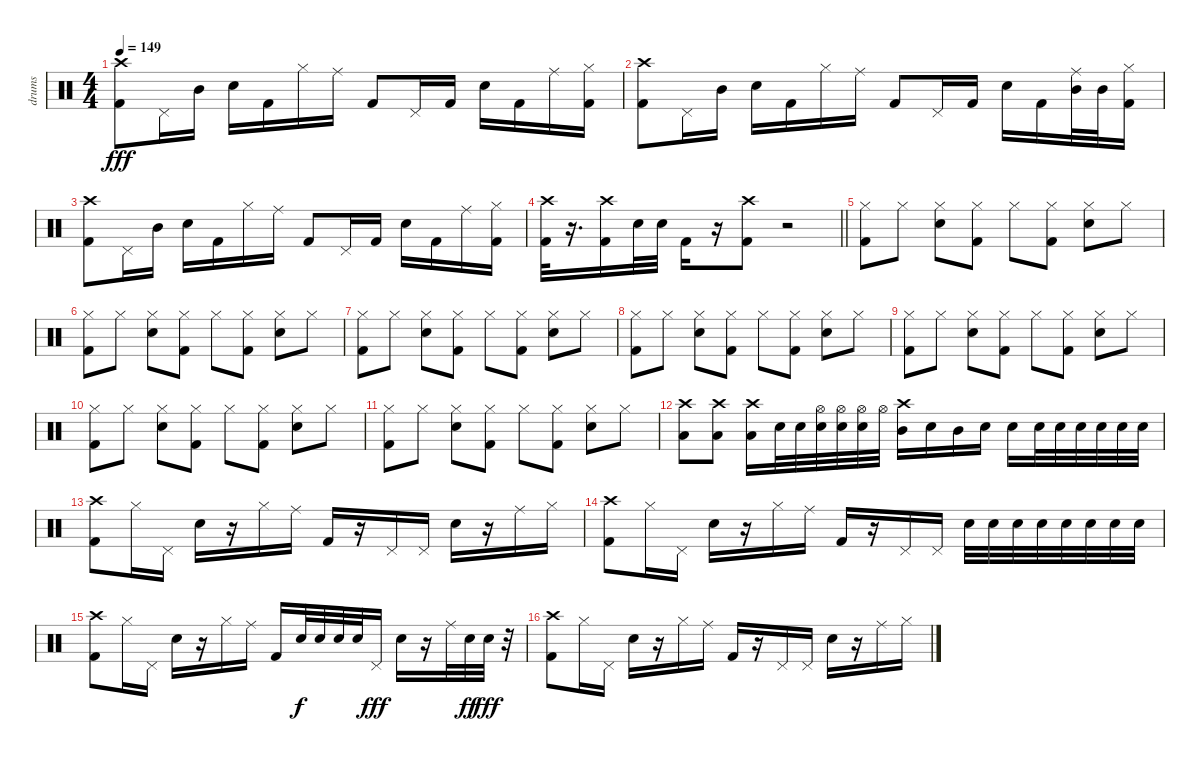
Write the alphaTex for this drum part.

\track ("drums" "drums") {instrument percussion}
\staff {score}
\articulation defaults
\ts (4 4)
\tempo 149
\clef neutral
\ks c
("Crash high (hit)" "Kick (hit) 2").8{dy fff} "Pedal Hi-Hat (hit)".16 "Mid Tom (hit)".16 "Snare (hit) 2".16 "Kick (hit) 2".16 "Hi-Hat (closed)".16 "Ride (middle)".16 "Kick (hit) 2".8 "Pedal Hi-Hat (hit)".16 "Kick (hit) 2".16 "Snare (hit) 2".16 "Kick (hit) 2".16 "Ride (middle)".16 ("Hi-Hat (closed)" "Kick (hit) 2").16 |
("Crash high (hit)" "Kick (hit) 2").8 "Pedal Hi-Hat (hit)".16 "Mid Tom (hit)".16 "Snare (hit) 2".16 "Kick (hit) 2".16 "Hi-Hat (closed)".16 "Ride (middle)".16 "Kick (hit) 2".8 "Pedal Hi-Hat (hit)".16 "Kick (hit) 2".16 "Snare (hit) 2".16 "Kick (hit) 2".16 ("Ride (middle)" "Mid Tom (hit)").32 "Mid Tom (hit)".32 ("Hi-Hat (closed)" "Kick (hit) 2").16 |
("Crash high (hit)" "Kick (hit) 2").8 "Pedal Hi-Hat (hit)".16 "Mid Tom (hit)".16 "Snare (hit) 2".16 "Kick (hit) 2".16 "Hi-Hat (closed)".16 "Ride (middle)".16 "Kick (hit) 2".8 "Pedal Hi-Hat (hit)".16 "Kick (hit) 2".16 "Snare (hit) 2".16 "Kick (hit) 2".16 "Ride (middle)".16 ("Hi-Hat (closed)" "Kick (hit) 2").16 |
\barLineRight lightlight
("Crash high (hit)" "Kick (hit) 2").32 r.16{d} ("Crash high (hit)" "Kick (hit) 2").16 "Snare (hit) 2".32 "Snare (hit) 2".32 "Kick (hit) 2".16 r.16 ("Crash high (hit)" "Kick (hit) 2").8 r.2 |
\section ("" "")
("Hi-Hat (closed)" "Kick (hit) 2").8 "Hi-Hat (closed)".8 ("Hi-Hat (closed)" "Snare (hit) 2").8 ("Hi-Hat (closed)" "Kick (hit) 2").8 "Hi-Hat (closed)".8 ("Hi-Hat (closed)" "Kick (hit) 2").8 ("Hi-Hat (closed)" "Snare (hit) 2").8 "Hi-Hat (closed)".8 |
("Hi-Hat (closed)" "Kick (hit) 2").8 "Hi-Hat (closed)".8 ("Hi-Hat (closed)" "Snare (hit) 2").8 ("Hi-Hat (closed)" "Kick (hit) 2").8 "Hi-Hat (closed)".8 ("Hi-Hat (closed)" "Kick (hit) 2").8 ("Hi-Hat (closed)" "Snare (hit) 2").8 "Hi-Hat (closed)".8 |
("Hi-Hat (closed)" "Kick (hit) 2").8 "Hi-Hat (closed)".8 ("Hi-Hat (closed)" "Snare (hit) 2").8 ("Hi-Hat (closed)" "Kick (hit) 2").8 "Hi-Hat (closed)".8 ("Hi-Hat (closed)" "Kick (hit) 2").8 ("Hi-Hat (closed)" "Snare (hit) 2").8 "Hi-Hat (closed)".8 |
("Hi-Hat (closed)" "Kick (hit) 2").8 "Hi-Hat (closed)".8 ("Hi-Hat (closed)" "Snare (hit) 2").8 ("Hi-Hat (closed)" "Kick (hit) 2").8 "Hi-Hat (closed)".8 ("Hi-Hat (closed)" "Kick (hit) 2").8 ("Hi-Hat (closed)" "Snare (hit) 2").8 "Hi-Hat (closed)".8 |
("Hi-Hat (closed)" "Kick (hit) 2").8 "Hi-Hat (closed)".8 ("Hi-Hat (closed)" "Snare (hit) 2").8 ("Hi-Hat (closed)" "Kick (hit) 2").8 "Hi-Hat (closed)".8 ("Hi-Hat (closed)" "Kick (hit) 2").8 ("Hi-Hat (closed)" "Snare (hit) 2").8 "Hi-Hat (closed)".8 |
("Hi-Hat (closed)" "Kick (hit) 2").8 "Hi-Hat (closed)".8 ("Hi-Hat (closed)" "Snare (hit) 2").8 ("Hi-Hat (closed)" "Kick (hit) 2").8 "Hi-Hat (closed)".8 ("Hi-Hat (closed)" "Kick (hit) 2").8 ("Hi-Hat (closed)" "Snare (hit) 2").8 "Hi-Hat (closed)".8 |
("Hi-Hat (closed)" "Kick (hit) 2").8 "Hi-Hat (closed)".8 ("Hi-Hat (closed)" "Snare (hit) 2").8 ("Hi-Hat (closed)" "Kick (hit) 2").8 "Hi-Hat (closed)".8 ("Hi-Hat (closed)" "Kick (hit) 2").8 ("Hi-Hat (closed)" "Snare (hit) 2").8 "Hi-Hat (closed)".8 |
("Crash high (hit)" "Low Floor Tom (hit)").8 ("Crash high (hit)" "Low Floor Tom (hit)").8 ("Crash high (hit)" "Low Floor Tom (hit)").16 "Snare (hit) 2".32 "Snare (hit) 2".32 ("Hi-Hat (open)" "Snare (hit) 2").32 ("Hi-Hat (open)" "Snare (hit) 2").32 ("Hi-Hat (open)" "Snare (hit) 2").32 "Hi-Hat (open)".32 ("Crash high (hit)" "Mid Tom (hit)").16 "Snare (hit) 2".16 "Mid Tom (hit)".16 "Snare (hit) 2".16 "Snare (hit) 2".16 "Snare (hit) 2".32 "Snare (hit) 2".32 "Snare (hit) 2".32 "Snare (hit) 2".32 "Snare (hit) 2".32 "Snare (hit) 2".32 |
("Crash high (hit)" "Kick (hit) 2").8 "Hi-Hat (closed)".16 "Pedal Hi-Hat (hit)".16 "Snare (hit) 2".16 r.16 "Hi-Hat (closed)".16 "Ride (middle)".16 "Kick (hit) 2".16 r.16 "Pedal Hi-Hat (hit)".16 "Pedal Hi-Hat (hit)".16 "Snare (hit) 2".16 r.16 "Ride (middle)".16 "Hi-Hat (closed)".16 |
("Crash high (hit)" "Kick (hit) 2").8 "Hi-Hat (closed)".16 "Pedal Hi-Hat (hit)".16 "Snare (hit) 2".16 r.16 "Hi-Hat (closed)".16 "Ride (middle)".16 "Kick (hit) 2".16 r.16 "Pedal Hi-Hat (hit)".16 "Pedal Hi-Hat (hit)".16 "Snare (hit) 2".32 "Snare (hit) 2".32 "Snare (hit) 2".32 "Snare (hit) 2".32 "Snare (hit) 2".32 "Snare (hit) 2".32 "Snare (hit) 2".32 "Snare (hit) 2".32 |
("Crash high (hit)" "Kick (hit) 2").8 "Hi-Hat (closed)".16 "Pedal Hi-Hat (hit)".16 "Snare (hit) 2".16 r.16 "Hi-Hat (closed)".16 "Ride (middle)".16 "Kick (hit) 2".16 "Snare (hit) 2".32{dy f} "Snare (hit) 2".32 "Snare (hit) 2".32 "Snare (hit) 2".32 "Pedal Hi-Hat (hit)".16{dy fff} "Snare (hit) 2".16 r.16 "Ride (middle)".32 "Snare (hit) 2".32{dy ff} "Snare (hit) 2".32{dy fff} r.32 |
("Crash high (hit)" "Kick (hit) 2").8 "Hi-Hat (closed)".16 "Pedal Hi-Hat (hit)".16 "Snare (hit) 2".16 r.16 "Hi-Hat (closed)".16 "Ride (middle)".16 "Kick (hit) 2".16 r.16 "Pedal Hi-Hat (hit)".16 "Pedal Hi-Hat (hit)".16 "Snare (hit) 2".16 r.16 "Ride (middle)".16 "Hi-Hat (closed)".16
